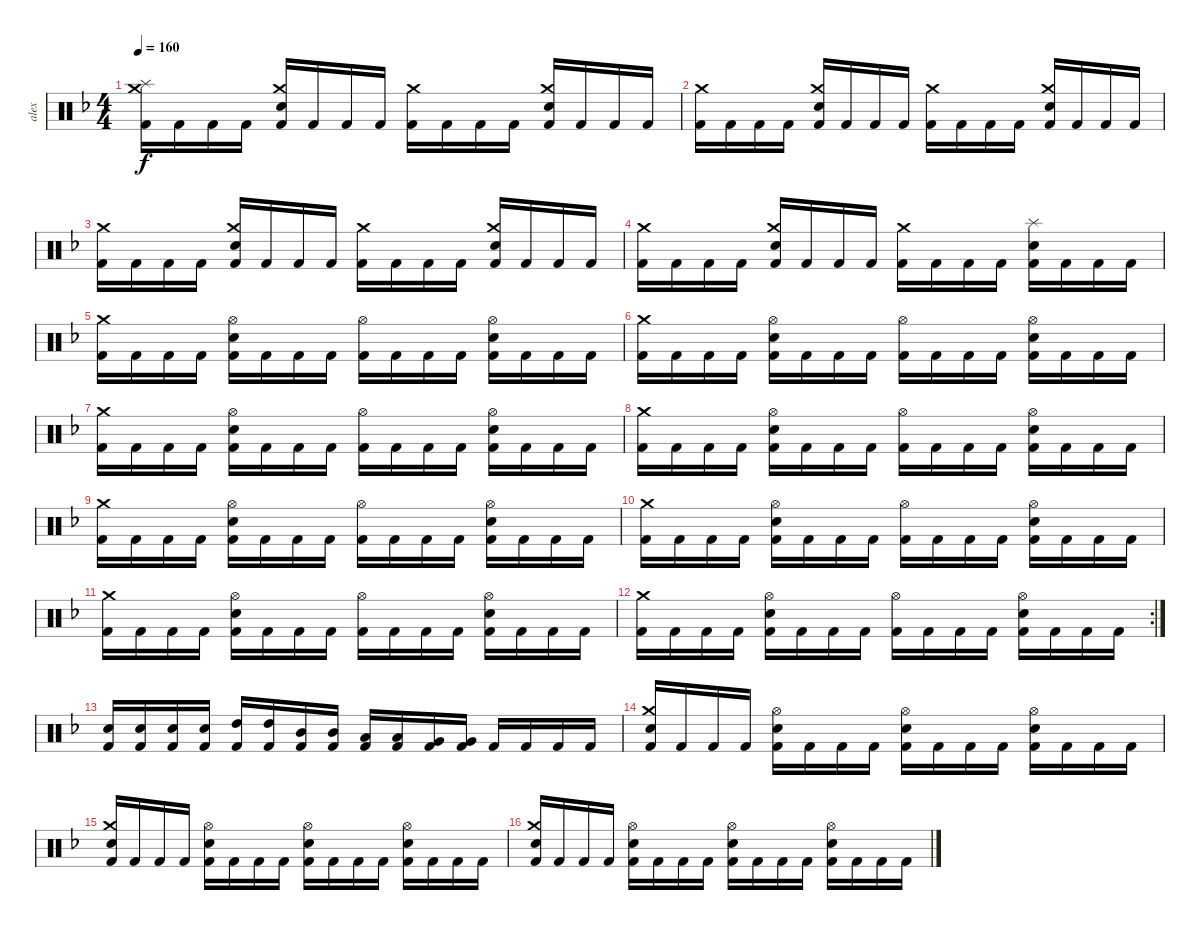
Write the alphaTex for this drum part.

\track ("alex" "alex") {instrument percussion}
\staff {score}
\articulation defaults
\ts (4 4)
\tempo 160
\clef neutral
\ks f
("Splash (hit)" "Kick (hit) 2" "Crash medium (hit)").16{dy f} "Kick (hit) 2".16 "Kick (hit) 2".16 "Kick (hit) 2".16 ("Electric Snare (hit)" "Kick (hit) 2" "Crash medium (hit)").16 "Kick (hit) 2".16 "Kick (hit) 2".16 "Kick (hit) 2".16 ("Kick (hit) 2" "Crash medium (hit)").16 "Kick (hit) 2".16 "Kick (hit) 2".16 "Kick (hit) 2".16 ("Electric Snare (hit)" "Kick (hit) 2" "Crash medium (hit)").16 "Kick (hit) 2".16 "Kick (hit) 2".16 "Kick (hit) 2".16 |
("Kick (hit) 2" "Crash medium (hit)").16 "Kick (hit) 2".16 "Kick (hit) 2".16 "Kick (hit) 2".16 ("Electric Snare (hit)" "Kick (hit) 2" "Crash medium (hit)").16 "Kick (hit) 2".16 "Kick (hit) 2".16 "Kick (hit) 2".16 ("Kick (hit) 2" "Crash medium (hit)").16 "Kick (hit) 2".16 "Kick (hit) 2".16 "Kick (hit) 2".16 ("Electric Snare (hit)" "Kick (hit) 2" "Crash medium (hit)").16 "Kick (hit) 2".16 "Kick (hit) 2".16 "Kick (hit) 2".16 |
("Kick (hit) 2" "Crash medium (hit)").16 "Kick (hit) 2".16 "Kick (hit) 2".16 "Kick (hit) 2".16 ("Electric Snare (hit)" "Kick (hit) 2" "Crash medium (hit)").16 "Kick (hit) 2".16 "Kick (hit) 2".16 "Kick (hit) 2".16 ("Kick (hit) 2" "Crash medium (hit)").16 "Kick (hit) 2".16 "Kick (hit) 2".16 "Kick (hit) 2".16 ("Electric Snare (hit)" "Kick (hit) 2" "Crash medium (hit)").16 "Kick (hit) 2".16 "Kick (hit) 2".16 "Kick (hit) 2".16 |
("Kick (hit) 2" "Crash medium (hit)").16 "Kick (hit) 2".16 "Kick (hit) 2".16 "Kick (hit) 2".16 ("Electric Snare (hit)" "Kick (hit) 2" "Crash medium (hit)").16 "Kick (hit) 2".16 "Kick (hit) 2".16 "Kick (hit) 2".16 ("Kick (hit) 2" "Crash medium (hit)").16 "Kick (hit) 2".16 "Kick (hit) 2".16 "Kick (hit) 2".16 ("Electric Snare (hit)" "Splash (hit)" "Kick (hit) 2").16 "Kick (hit) 2".16 "Kick (hit) 2".16 "Kick (hit) 2".16 |
("Crash medium (hit)" "Kick (hit) 2").16 "Kick (hit) 2".16 "Kick (hit) 2".16 "Kick (hit) 2".16 ("Electric Snare (hit)" "Hi-Hat (open)" "Kick (hit) 2").16 "Kick (hit) 2".16 "Kick (hit) 2".16 "Kick (hit) 2".16 ("Hi-Hat (open)" "Kick (hit) 2").16 "Kick (hit) 2".16 "Kick (hit) 2".16 "Kick (hit) 2".16 ("Electric Snare (hit)" "Hi-Hat (open)" "Kick (hit) 2").16 "Kick (hit) 2".16 "Kick (hit) 2".16 "Kick (hit) 2".16 |
("Crash medium (hit)" "Kick (hit) 2").16 "Kick (hit) 2".16 "Kick (hit) 2".16 "Kick (hit) 2".16 ("Electric Snare (hit)" "Hi-Hat (open)" "Kick (hit) 2").16 "Kick (hit) 2".16 "Kick (hit) 2".16 "Kick (hit) 2".16 ("Hi-Hat (open)" "Kick (hit) 2").16 "Kick (hit) 2".16 "Kick (hit) 2".16 "Kick (hit) 2".16 ("Electric Snare (hit)" "Hi-Hat (open)" "Kick (hit) 2").16 "Kick (hit) 2".16 "Kick (hit) 2".16 "Kick (hit) 2".16 |
("Crash medium (hit)" "Kick (hit) 2").16 "Kick (hit) 2".16 "Kick (hit) 2".16 "Kick (hit) 2".16 ("Electric Snare (hit)" "Hi-Hat (open)" "Kick (hit) 2").16 "Kick (hit) 2".16 "Kick (hit) 2".16 "Kick (hit) 2".16 ("Hi-Hat (open)" "Kick (hit) 2").16 "Kick (hit) 2".16 "Kick (hit) 2".16 "Kick (hit) 2".16 ("Electric Snare (hit)" "Hi-Hat (open)" "Kick (hit) 2").16 "Kick (hit) 2".16 "Kick (hit) 2".16 "Kick (hit) 2".16 |
("Crash medium (hit)" "Kick (hit) 2").16 "Kick (hit) 2".16 "Kick (hit) 2".16 "Kick (hit) 2".16 ("Electric Snare (hit)" "Hi-Hat (open)" "Kick (hit) 2").16 "Kick (hit) 2".16 "Kick (hit) 2".16 "Kick (hit) 2".16 ("Hi-Hat (open)" "Kick (hit) 2").16 "Kick (hit) 2".16 "Kick (hit) 2".16 "Kick (hit) 2".16 ("Electric Snare (hit)" "Hi-Hat (open)" "Kick (hit) 2").16 "Kick (hit) 2".16 "Kick (hit) 2".16 "Kick (hit) 2".16 |
("Crash medium (hit)" "Kick (hit) 2").16 "Kick (hit) 2".16 "Kick (hit) 2".16 "Kick (hit) 2".16 ("Electric Snare (hit)" "Hi-Hat (open)" "Kick (hit) 2").16 "Kick (hit) 2".16 "Kick (hit) 2".16 "Kick (hit) 2".16 ("Hi-Hat (open)" "Kick (hit) 2").16 "Kick (hit) 2".16 "Kick (hit) 2".16 "Kick (hit) 2".16 ("Electric Snare (hit)" "Hi-Hat (open)" "Kick (hit) 2").16 "Kick (hit) 2".16 "Kick (hit) 2".16 "Kick (hit) 2".16 |
("Crash medium (hit)" "Kick (hit) 2").16 "Kick (hit) 2".16 "Kick (hit) 2".16 "Kick (hit) 2".16 ("Electric Snare (hit)" "Hi-Hat (open)" "Kick (hit) 2").16 "Kick (hit) 2".16 "Kick (hit) 2".16 "Kick (hit) 2".16 ("Hi-Hat (open)" "Kick (hit) 2").16 "Kick (hit) 2".16 "Kick (hit) 2".16 "Kick (hit) 2".16 ("Electric Snare (hit)" "Hi-Hat (open)" "Kick (hit) 2").16 "Kick (hit) 2".16 "Kick (hit) 2".16 "Kick (hit) 2".16 |
("Crash medium (hit)" "Kick (hit) 2").16 "Kick (hit) 2".16 "Kick (hit) 2".16 "Kick (hit) 2".16 ("Electric Snare (hit)" "Hi-Hat (open)" "Kick (hit) 2").16 "Kick (hit) 2".16 "Kick (hit) 2".16 "Kick (hit) 2".16 ("Hi-Hat (open)" "Kick (hit) 2").16 "Kick (hit) 2".16 "Kick (hit) 2".16 "Kick (hit) 2".16 ("Electric Snare (hit)" "Hi-Hat (open)" "Kick (hit) 2").16 "Kick (hit) 2".16 "Kick (hit) 2".16 "Kick (hit) 2".16 |
\rc 2
("Crash medium (hit)" "Kick (hit) 2").16 "Kick (hit) 2".16 "Kick (hit) 2".16 "Kick (hit) 2".16 ("Electric Snare (hit)" "Hi-Hat (open)" "Kick (hit) 2").16 "Kick (hit) 2".16 "Kick (hit) 2".16 "Kick (hit) 2".16 ("Hi-Hat (open)" "Kick (hit) 2").16 "Kick (hit) 2".16 "Kick (hit) 2".16 "Kick (hit) 2".16 ("Electric Snare (hit)" "Hi-Hat (open)" "Kick (hit) 2").16 "Kick (hit) 2".16 "Kick (hit) 2".16 "Kick (hit) 2".16 |
("Kick (hit) 2" "Electric Snare (hit)").16 ("Kick (hit) 2" "Electric Snare (hit)").16 ("Kick (hit) 2" "Electric Snare (hit)").16 ("Kick (hit) 2" "Electric Snare (hit)").16 ("Kick (hit) 2" "High Tom (hit)").16 ("Kick (hit) 2" "High Tom (hit)").16 ("Kick (hit) 2" "Mid Tom (hit)").16 ("Kick (hit) 2" "Mid Tom (hit)").16 ("Kick (hit) 2" "Low Tom (hit)").16 ("Kick (hit) 2" "Low Tom (hit)").16 ("Kick (hit) 2" "Very Low Tom (hit)").16 ("Kick (hit) 2" "Very Low Tom (hit)").16 "Kick (hit) 2".16 "Kick (hit) 2".16 "Kick (hit) 2".16 "Kick (hit) 2".16 |
("Crash medium (hit)" "Kick (hit) 2" "Electric Snare (hit)").16 "Kick (hit) 2".16 "Kick (hit) 2".16 "Kick (hit) 2".16 ("Hi-Hat (open)" "Kick (hit) 2" "Electric Snare (hit)").16 "Kick (hit) 2".16 "Kick (hit) 2".16 "Kick (hit) 2".16 ("Hi-Hat (open)" "Kick (hit) 2" "Electric Snare (hit)").16 "Kick (hit) 2".16 "Kick (hit) 2".16 "Kick (hit) 2".16 ("Hi-Hat (open)" "Kick (hit) 2" "Electric Snare (hit)").16 "Kick (hit) 2".16 "Kick (hit) 2".16 "Kick (hit) 2".16 |
("Crash medium (hit)" "Kick (hit) 2" "Electric Snare (hit)").16 "Kick (hit) 2".16 "Kick (hit) 2".16 "Kick (hit) 2".16 ("Hi-Hat (open)" "Kick (hit) 2" "Electric Snare (hit)").16 "Kick (hit) 2".16 "Kick (hit) 2".16 "Kick (hit) 2".16 ("Hi-Hat (open)" "Kick (hit) 2" "Electric Snare (hit)").16 "Kick (hit) 2".16 "Kick (hit) 2".16 "Kick (hit) 2".16 ("Hi-Hat (open)" "Kick (hit) 2" "Electric Snare (hit)").16 "Kick (hit) 2".16 "Kick (hit) 2".16 "Kick (hit) 2".16 |
("Crash medium (hit)" "Kick (hit) 2" "Electric Snare (hit)").16 "Kick (hit) 2".16 "Kick (hit) 2".16 "Kick (hit) 2".16 ("Hi-Hat (open)" "Kick (hit) 2" "Electric Snare (hit)").16 "Kick (hit) 2".16 "Kick (hit) 2".16 "Kick (hit) 2".16 ("Hi-Hat (open)" "Kick (hit) 2" "Electric Snare (hit)").16 "Kick (hit) 2".16 "Kick (hit) 2".16 "Kick (hit) 2".16 ("Hi-Hat (open)" "Kick (hit) 2" "Electric Snare (hit)").16 "Kick (hit) 2".16 "Kick (hit) 2".16 "Kick (hit) 2".16
